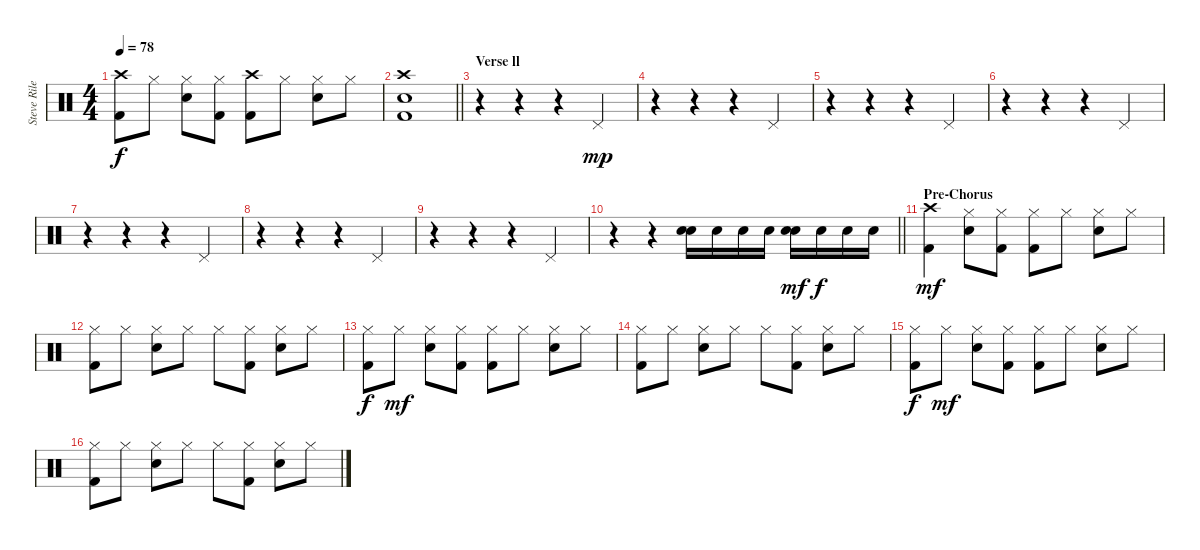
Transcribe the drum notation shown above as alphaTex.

\track ("Steve Riley" "Steve Rile") {instrument percussion}
\staff {score}
\articulation defaults
\ts (4 4)
\tempo 78
\clef neutral
\ks c
("Crash high (hit)" "Kick (hit) 2").8{dy f} "Hi-Hat (closed)".8 ("Hi-Hat (closed)" "Electric Snare (hit)").8 ("Hi-Hat (closed)" "Kick (hit) 2").8 ("Crash high (hit)" "Kick (hit) 2").8 "Hi-Hat (closed)".8 ("Hi-Hat (closed)" "Electric Snare (hit)").8 "Hi-Hat (closed)".8 |
\barLineRight lightlight
("Crash high (hit)" "Electric Snare (hit)" "Kick (hit) 2").1 |
\section ("" "Verse ll")
r.4 r.4 r.4 "Pedal Hi-Hat (hit)".4{dy mp} |
r.4 r.4 r.4 "Pedal Hi-Hat (hit)".4 |
r.4 r.4 r.4 "Pedal Hi-Hat (hit)".4 |
r.4 r.4 r.4 "Pedal Hi-Hat (hit)".4 |
r.4 r.4 r.4 "Pedal Hi-Hat (hit)".4 |
r.4 r.4 r.4 "Pedal Hi-Hat (hit)".4 |
r.4 r.4 r.4 "Pedal Hi-Hat (hit)".4 |
\barLineRight lightlight
r.4 r.4 ("Electric Snare (hit)" "Electric Snare (hit)").16{bd 60} "Electric Snare (hit)".16 "Electric Snare (hit)".16 "Electric Snare (hit)".16 ("Electric Snare (hit)" "Electric Snare (hit)").16{bd 60 dy mf} "Electric Snare (hit)".16{dy f} "Electric Snare (hit)".16 "Electric Snare (hit)".16 |
\section ("" "Pre-Chorus")
("Crash high (hit)" "Kick (hit) 2").4{dy mf} ("Hi-Hat (closed)" "Electric Snare (hit)").8 ("Hi-Hat (closed)" "Kick (hit) 2").8 ("Hi-Hat (closed)" "Kick (hit) 2").8 "Hi-Hat (closed)".8 ("Hi-Hat (closed)" "Electric Snare (hit)").8 "Hi-Hat (closed)".8 |
("Hi-Hat (closed)" "Kick (hit) 2").8 "Hi-Hat (closed)".8 ("Hi-Hat (closed)" "Electric Snare (hit)").8 "Hi-Hat (closed)".8 "Hi-Hat (closed)".8 ("Hi-Hat (closed)" "Kick (hit) 2").8 ("Hi-Hat (closed)" "Electric Snare (hit)").8 "Hi-Hat (closed)".8 |
("Hi-Hat (closed)" "Kick (hit) 2").8{dy f} "Hi-Hat (closed)".8{dy mf} ("Hi-Hat (closed)" "Electric Snare (hit)").8 ("Hi-Hat (closed)" "Kick (hit) 2").8 ("Hi-Hat (closed)" "Kick (hit) 2").8 "Hi-Hat (closed)".8 ("Hi-Hat (closed)" "Electric Snare (hit)").8 "Hi-Hat (closed)".8 |
("Hi-Hat (closed)" "Kick (hit) 2").8 "Hi-Hat (closed)".8 ("Hi-Hat (closed)" "Electric Snare (hit)").8 "Hi-Hat (closed)".8 "Hi-Hat (closed)".8 ("Hi-Hat (closed)" "Kick (hit) 2").8 ("Hi-Hat (closed)" "Electric Snare (hit)").8 "Hi-Hat (closed)".8 |
("Hi-Hat (closed)" "Kick (hit) 2").8{dy f} "Hi-Hat (closed)".8{dy mf} ("Hi-Hat (closed)" "Electric Snare (hit)").8 ("Hi-Hat (closed)" "Kick (hit) 2").8 ("Hi-Hat (closed)" "Kick (hit) 2").8 "Hi-Hat (closed)".8 ("Hi-Hat (closed)" "Electric Snare (hit)").8 "Hi-Hat (closed)".8 |
("Hi-Hat (closed)" "Kick (hit) 2").8 "Hi-Hat (closed)".8 ("Hi-Hat (closed)" "Electric Snare (hit)").8 "Hi-Hat (closed)".8 "Hi-Hat (closed)".8 ("Hi-Hat (closed)" "Kick (hit) 2").8 ("Hi-Hat (closed)" "Electric Snare (hit)").8 "Hi-Hat (closed)".8
